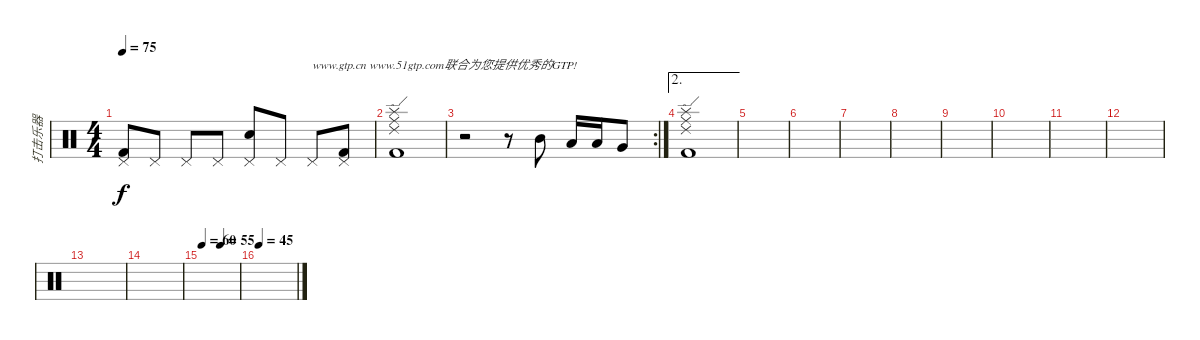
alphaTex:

\track ("打击乐器" "打击乐器") {instrument percussion}
\staff {score}
\articulation defaults
\ts (4 4)
\tempo 75
\clef neutral
\ks c
("Pedal Hi-Hat (hit)" "Kick (hit) 2").8{dy f} "Pedal Hi-Hat (hit)".8 "Pedal Hi-Hat (hit)".8 "Pedal Hi-Hat (hit)".8 ("Pedal Hi-Hat (hit)" "Electric Snare (hit)").8 "Pedal Hi-Hat (hit)".8 "Pedal Hi-Hat (hit)".8{txt "www.gtp.cn www.51gtp.com联合为您提供优秀的GTP!"} ("Pedal Hi-Hat (hit)" "Kick (hit) 2").8 |
("Ride (edge) 2" "Ride (middle)" "Splash (hit)" "Kick (hit) 2").1 |
\rc 2
r.2 r.8 "Mid Tom (hit)".8 "Low Tom (hit)".16 "Low Tom (hit)".16 "Very Low Tom (hit)".8 |
\ae 2
("Ride (edge) 2" "Ride (middle)" "Splash (hit)" "Kick (hit) 2").1 |
|
|
|
|
|
|
|
|
|
|
\tempo 60
\tempo (55 0.5)
|
\tempo 45
